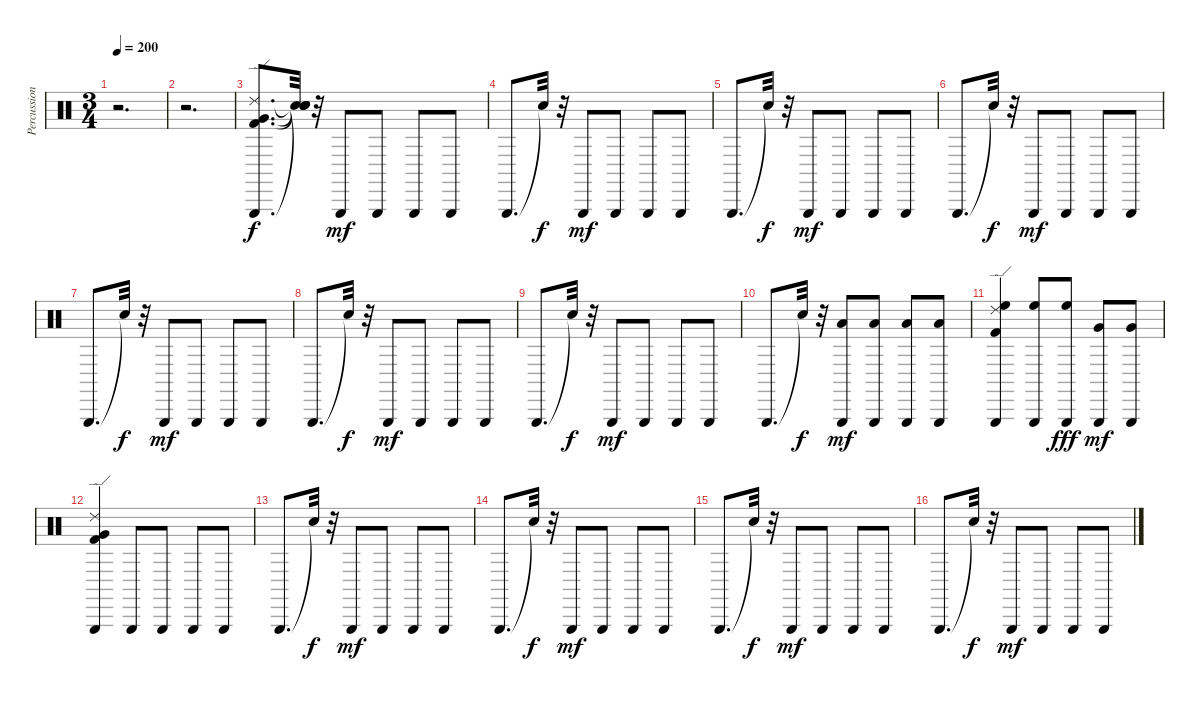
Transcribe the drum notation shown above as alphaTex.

\track ("Percussion." "Percussion") {instrument percussion}
\staff {score}
\articulation defaults
\ts (3 4)
\tempo 200
\clef neutral
\ks c
r.2{d dy f} |
r.2{d} |
("Very Low Tom (hit)" "Triangle (hit)" "Ride (edge) 2" "Kick (hit) 2").8{d} ("Snare (hit)"{t} "Snare (hit)"{t} "Snare (hit)"{t} "Snare (hit)"{t}).32 r.32 "Triangle (hit)".8{dy mf} "Triangle (hit)".8 "Triangle (hit)".8 "Triangle (hit)".8 |
"Triangle (hit)".8{d} "Snare (hit)"{t}.32{dy f} r.32 "Triangle (hit)".8{dy mf} "Triangle (hit)".8 "Triangle (hit)".8 "Triangle (hit)".8 |
"Triangle (hit)".8{d} "Snare (hit)"{t}.32{dy f} r.32 "Triangle (hit)".8{dy mf} "Triangle (hit)".8 "Triangle (hit)".8 "Triangle (hit)".8 |
"Triangle (hit)".8{d} "Snare (hit)"{t}.32{dy f} r.32 "Triangle (hit)".8{dy mf} "Triangle (hit)".8 "Triangle (hit)".8 "Triangle (hit)".8 |
"Triangle (hit)".8{d} "Snare (hit)"{t}.32{dy f} r.32 "Triangle (hit)".8{dy mf} "Triangle (hit)".8 "Triangle (hit)".8 "Triangle (hit)".8 |
"Triangle (hit)".8{d} "Snare (hit)"{t}.32{dy f} r.32 "Triangle (hit)".8{dy mf} "Triangle (hit)".8 "Triangle (hit)".8 "Triangle (hit)".8 |
"Triangle (hit)".8{d} "Snare (hit)"{t}.32{dy f} r.32 "Triangle (hit)".8{dy mf} "Triangle (hit)".8 "Triangle (hit)".8 "Triangle (hit)".8 |
"Triangle (hit)".8{d} "Snare (hit)"{t}.32{dy f} r.32 ("Low Tom (hit)" "Triangle (hit)").8{dy mf} ("Low Tom (hit)" "Triangle (hit)").8 ("Low Tom (hit)" "Triangle (hit)").8 ("Low Tom (hit)" "Triangle (hit)").8 |
("High Floor Tom (hit)" "Kick (hit) 2" "Ride (edge) 2" "Triangle (hit)").4 ("High Floor Tom (hit)" "Triangle (hit)").8 ("Triangle (hit)" "High Floor Tom (hit)").8{dy fff} ("Very Low Tom (hit)" "Triangle (hit)").8{dy mf} ("Very Low Tom (hit)" "Triangle (hit)").8 |
("Very Low Tom (hit)" "Kick (hit) 2" "Ride (edge) 2" "Triangle (hit)").4 "Triangle (hit)".8 "Triangle (hit)".8 "Triangle (hit)".8 "Triangle (hit)".8 |
"Triangle (hit)".8{d} "Snare (hit)"{t}.32{dy f} r.32 "Triangle (hit)".8{dy mf} "Triangle (hit)".8 "Triangle (hit)".8 "Triangle (hit)".8 |
"Triangle (hit)".8{d} "Snare (hit)"{t}.32{dy f} r.32 "Triangle (hit)".8{dy mf} "Triangle (hit)".8 "Triangle (hit)".8 "Triangle (hit)".8 |
"Triangle (hit)".8{d} "Snare (hit)"{t}.32{dy f} r.32 "Triangle (hit)".8{dy mf} "Triangle (hit)".8 "Triangle (hit)".8 "Triangle (hit)".8 |
"Triangle (hit)".8{d} "Snare (hit)"{t}.32{dy f} r.32 "Triangle (hit)".8{dy mf} "Triangle (hit)".8 "Triangle (hit)".8 "Triangle (hit)".8
